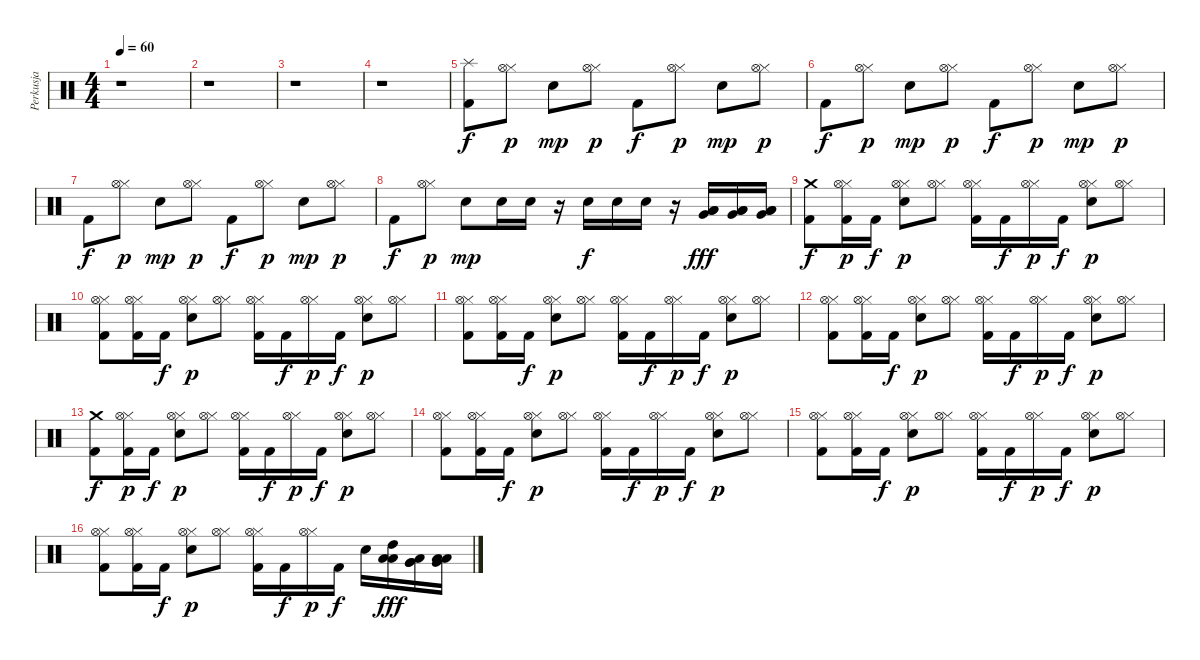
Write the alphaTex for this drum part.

\track ("Perkusja" "Perkusja") {instrument percussion}
\staff {score}
\articulation defaults
\ts (4 4)
\tempo 60
\clef neutral
\ks c
r.1{dy f} |
r.1 |
r.1 |
r.1 |
("Kick (hit) 2" "Splash (hit)").8 ("Hi-Hat (closed)" "Hi-Hat (open)").8{dy p} "Snare (hit) 2".8{dy mp} ("Hi-Hat (closed)" "Hi-Hat (open)").8{dy p} "Kick (hit) 2".8{dy f} ("Hi-Hat (closed)" "Hi-Hat (open)").8{dy p} "Snare (hit) 2".8{dy mp} ("Hi-Hat (closed)" "Hi-Hat (open)").8{dy p} |
"Kick (hit) 2".8{dy f} ("Hi-Hat (closed)" "Hi-Hat (open)").8{dy p} "Snare (hit) 2".8{dy mp} ("Hi-Hat (closed)" "Hi-Hat (open)").8{dy p} "Kick (hit) 2".8{dy f} ("Hi-Hat (closed)" "Hi-Hat (open)").8{dy p} "Snare (hit) 2".8{dy mp} ("Hi-Hat (closed)" "Hi-Hat (open)").8{dy p} |
"Kick (hit) 2".8{dy f} ("Hi-Hat (closed)" "Hi-Hat (open)").8{dy p} "Snare (hit) 2".8{dy mp} ("Hi-Hat (closed)" "Hi-Hat (open)").8{dy p} "Kick (hit) 2".8{dy f} ("Hi-Hat (closed)" "Hi-Hat (open)").8{dy p} "Snare (hit) 2".8{dy mp} ("Hi-Hat (closed)" "Hi-Hat (open)").8{dy p} |
"Kick (hit) 2".8{dy f} ("Hi-Hat (closed)" "Hi-Hat (open)").8{dy p} "Snare (hit) 2".8{dy mp} "Snare (hit) 2".16 "Snare (hit) 2".16 r.16 "Electric Snare (hit)".16{dy f} "Electric Snare (hit)".16 "Electric Snare (hit)".16 r.16 ("Low Floor Tom (hit)" "Very Low Tom (hit)" "Low Tom (hit)").16{dy fff} ("Low Floor Tom (hit)" "Very Low Tom (hit)" "Low Tom (hit)").16 ("Low Floor Tom (hit)" "Very Low Tom (hit)" "Low Tom (hit)").16 |
("Kick (hit) 2" "Crash medium (hit)").8{dy f} ("Kick (hit) 2" "Hi-Hat (closed)" "Hi-Hat (open)").16{dy p} "Kick (hit) 2".16{dy f} ("Electric Snare (hit)" "Hi-Hat (closed)" "Hi-Hat (open)").8{dy p} ("Hi-Hat (closed)" "Hi-Hat (open)").8 ("Kick (hit) 2" "Hi-Hat (closed)" "Hi-Hat (open)").16 "Kick (hit) 2".16{dy f} ("Hi-Hat (closed)" "Hi-Hat (open)").16{dy p} "Kick (hit) 2".16{dy f} ("Electric Snare (hit)" "Hi-Hat (closed)" "Hi-Hat (open)").8{dy p} ("Hi-Hat (closed)" "Hi-Hat (open)").8 |
("Kick (hit) 2" "Hi-Hat (closed)" "Hi-Hat (open)").8 ("Kick (hit) 2" "Hi-Hat (closed)" "Hi-Hat (open)").16 "Kick (hit) 2".16{dy f} ("Electric Snare (hit)" "Hi-Hat (closed)" "Hi-Hat (open)").8{dy p} ("Hi-Hat (closed)" "Hi-Hat (open)").8 ("Kick (hit) 2" "Hi-Hat (closed)" "Hi-Hat (open)").16 "Kick (hit) 2".16{dy f} ("Hi-Hat (closed)" "Hi-Hat (open)").16{dy p} "Kick (hit) 2".16{dy f} ("Electric Snare (hit)" "Hi-Hat (closed)" "Hi-Hat (open)").8{dy p} ("Hi-Hat (closed)" "Hi-Hat (open)").8 |
("Kick (hit) 2" "Hi-Hat (closed)" "Hi-Hat (open)").8 ("Kick (hit) 2" "Hi-Hat (closed)" "Hi-Hat (open)").16 "Kick (hit) 2".16{dy f} ("Electric Snare (hit)" "Hi-Hat (closed)" "Hi-Hat (open)").8{dy p} ("Hi-Hat (closed)" "Hi-Hat (open)").8 ("Kick (hit) 2" "Hi-Hat (closed)" "Hi-Hat (open)").16 "Kick (hit) 2".16{dy f} ("Hi-Hat (closed)" "Hi-Hat (open)").16{dy p} "Kick (hit) 2".16{dy f} ("Electric Snare (hit)" "Hi-Hat (closed)" "Hi-Hat (open)").8{dy p} ("Hi-Hat (closed)" "Hi-Hat (open)").8 |
("Kick (hit) 2" "Hi-Hat (closed)" "Hi-Hat (open)").8 ("Kick (hit) 2" "Hi-Hat (closed)" "Hi-Hat (open)").16 "Kick (hit) 2".16{dy f} ("Electric Snare (hit)" "Hi-Hat (closed)" "Hi-Hat (open)").8{dy p} ("Hi-Hat (closed)" "Hi-Hat (open)").8 ("Kick (hit) 2" "Hi-Hat (closed)" "Hi-Hat (open)").16 "Kick (hit) 2".16{dy f} ("Hi-Hat (closed)" "Hi-Hat (open)").16{dy p} "Kick (hit) 2".16{dy f} ("Electric Snare (hit)" "Hi-Hat (closed)" "Hi-Hat (open)").8{dy p} ("Hi-Hat (closed)" "Hi-Hat (open)").8 |
("Kick (hit) 2" "Crash medium (hit)").8{dy f} ("Kick (hit) 2" "Hi-Hat (closed)" "Hi-Hat (open)").16{dy p} "Kick (hit) 2".16{dy f} ("Electric Snare (hit)" "Hi-Hat (closed)" "Hi-Hat (open)").8{dy p} ("Hi-Hat (closed)" "Hi-Hat (open)").8 ("Kick (hit) 2" "Hi-Hat (closed)" "Hi-Hat (open)").16 "Kick (hit) 2".16{dy f} ("Hi-Hat (closed)" "Hi-Hat (open)").16{dy p} "Kick (hit) 2".16{dy f} ("Electric Snare (hit)" "Hi-Hat (closed)" "Hi-Hat (open)").8{dy p} ("Hi-Hat (closed)" "Hi-Hat (open)").8 |
("Kick (hit) 2" "Hi-Hat (closed)" "Hi-Hat (open)").8 ("Kick (hit) 2" "Hi-Hat (closed)" "Hi-Hat (open)").16 "Kick (hit) 2".16{dy f} ("Electric Snare (hit)" "Hi-Hat (closed)" "Hi-Hat (open)").8{dy p} ("Hi-Hat (closed)" "Hi-Hat (open)").8 ("Kick (hit) 2" "Hi-Hat (closed)" "Hi-Hat (open)").16 "Kick (hit) 2".16{dy f} ("Hi-Hat (closed)" "Hi-Hat (open)").16{dy p} "Kick (hit) 2".16{dy f} ("Electric Snare (hit)" "Hi-Hat (closed)" "Hi-Hat (open)").8{dy p} ("Hi-Hat (closed)" "Hi-Hat (open)").8 |
("Kick (hit) 2" "Hi-Hat (closed)" "Hi-Hat (open)").8 ("Kick (hit) 2" "Hi-Hat (closed)" "Hi-Hat (open)").16 "Kick (hit) 2".16{dy f} ("Electric Snare (hit)" "Hi-Hat (closed)" "Hi-Hat (open)").8{dy p} ("Hi-Hat (closed)" "Hi-Hat (open)").8 ("Kick (hit) 2" "Hi-Hat (closed)" "Hi-Hat (open)").16 "Kick (hit) 2".16{dy f} ("Hi-Hat (closed)" "Hi-Hat (open)").16{dy p} "Kick (hit) 2".16{dy f} ("Electric Snare (hit)" "Hi-Hat (closed)" "Hi-Hat (open)").8{dy p} ("Hi-Hat (closed)" "Hi-Hat (open)").8 |
("Kick (hit) 2" "Hi-Hat (closed)" "Hi-Hat (open)").8 ("Kick (hit) 2" "Hi-Hat (closed)" "Hi-Hat (open)").16 "Kick (hit) 2".16{dy f} ("Electric Snare (hit)" "Hi-Hat (closed)" "Hi-Hat (open)").8{dy p} ("Hi-Hat (closed)" "Hi-Hat (open)").8 ("Kick (hit) 2" "Hi-Hat (closed)" "Hi-Hat (open)").16 "Kick (hit) 2".16{dy f} ("Hi-Hat (closed)" "Hi-Hat (open)").16{dy p} "Kick (hit) 2".16{dy f} "Electric Snare (hit)".16 ("High Tom (hit)" "Low Tom (hit)" "Low Tom (hit)").16{dy fff} ("Low Tom (hit)" "Very Low Tom (hit)" "Very Low Tom (hit)").16 ("Very Low Tom (hit)" "Low Floor Tom (hit)" "Low Floor Tom (hit)").16
